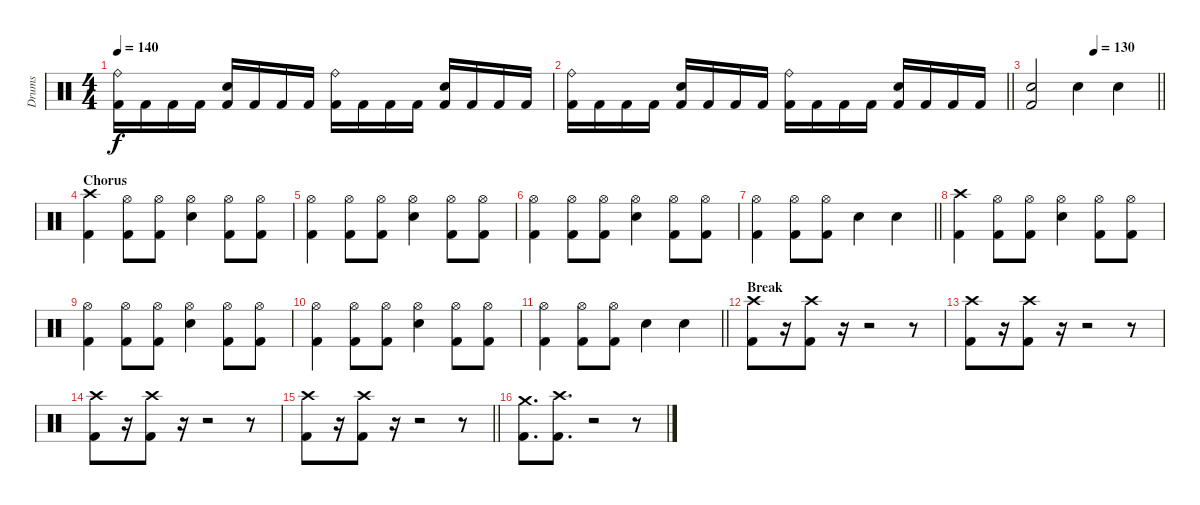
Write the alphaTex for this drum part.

\track ("Drums" "Drums") {instrument percussion}
\staff {score}
\articulation defaults
\ts (4 4)
\tempo 140
\clef neutral
\ks c
("Ride (bell)" "Kick (hit) 2").16{dy f} "Kick (hit) 2".16 "Kick (hit) 2".16 "Kick (hit) 2".16 ("Snare (hit) 2" "Kick (hit) 2").16 "Kick (hit) 2".16 "Kick (hit) 2".16 "Kick (hit) 2".16 ("Ride (bell)" "Kick (hit) 2").16 "Kick (hit) 2".16 "Kick (hit) 2".16 "Kick (hit) 2".16 ("Snare (hit) 2" "Kick (hit) 2").16 "Kick (hit) 2".16 "Kick (hit) 2".16 "Kick (hit) 2".16 |
\barLineRight lightlight
("Ride (bell)" "Kick (hit) 2").16 "Kick (hit) 2".16 "Kick (hit) 2".16 "Kick (hit) 2".16 ("Snare (hit) 2" "Kick (hit) 2").16 "Kick (hit) 2".16 "Kick (hit) 2".16 "Kick (hit) 2".16 ("Ride (bell)" "Kick (hit) 2").16 "Kick (hit) 2".16 "Kick (hit) 2".16 "Kick (hit) 2".16 ("Snare (hit) 2" "Kick (hit) 2").16 "Kick (hit) 2".16 "Kick (hit) 2".16 "Kick (hit) 2".16 |
\tempo (130 0.5)
\barLineRight lightlight
("Snare (hit) 2" "Kick (hit) 2").2 "Snare (hit) 2".4 "Snare (hit) 2".4 |
\section ("" "Chorus")
("Crash high (hit)" "Kick (hit) 2").4 ("Hi-Hat (open)" "Kick (hit) 2").8 ("Hi-Hat (open)" "Kick (hit) 2").8 ("Hi-Hat (open)" "Snare (hit) 2").4 ("Hi-Hat (open)" "Kick (hit) 2").8 ("Hi-Hat (open)" "Kick (hit) 2").8 |
("Hi-Hat (open)" "Kick (hit) 2").4 ("Hi-Hat (open)" "Kick (hit) 2").8 ("Hi-Hat (open)" "Kick (hit) 2").8 ("Hi-Hat (open)" "Snare (hit) 2").4 ("Hi-Hat (open)" "Kick (hit) 2").8 ("Hi-Hat (open)" "Kick (hit) 2").8 |
("Hi-Hat (open)" "Kick (hit) 2").4 ("Hi-Hat (open)" "Kick (hit) 2").8 ("Hi-Hat (open)" "Kick (hit) 2").8 ("Hi-Hat (open)" "Snare (hit) 2").4 ("Hi-Hat (open)" "Kick (hit) 2").8 ("Hi-Hat (open)" "Kick (hit) 2").8 |
\barLineRight lightlight
("Hi-Hat (open)" "Kick (hit) 2").4 ("Hi-Hat (open)" "Kick (hit) 2").8 ("Hi-Hat (open)" "Kick (hit) 2").8 "Snare (hit) 2".4 "Snare (hit) 2".4 |
("Crash high (hit)" "Kick (hit) 2").4 ("Hi-Hat (open)" "Kick (hit) 2").8 ("Hi-Hat (open)" "Kick (hit) 2").8 ("Hi-Hat (open)" "Snare (hit) 2").4 ("Hi-Hat (open)" "Kick (hit) 2").8 ("Hi-Hat (open)" "Kick (hit) 2").8 |
("Hi-Hat (open)" "Kick (hit) 2").4 ("Hi-Hat (open)" "Kick (hit) 2").8 ("Hi-Hat (open)" "Kick (hit) 2").8 ("Hi-Hat (open)" "Snare (hit) 2").4 ("Hi-Hat (open)" "Kick (hit) 2").8 ("Hi-Hat (open)" "Kick (hit) 2").8 |
("Hi-Hat (open)" "Kick (hit) 2").4 ("Hi-Hat (open)" "Kick (hit) 2").8 ("Hi-Hat (open)" "Kick (hit) 2").8 ("Hi-Hat (open)" "Snare (hit) 2").4 ("Hi-Hat (open)" "Kick (hit) 2").8 ("Hi-Hat (open)" "Kick (hit) 2").8 |
\barLineRight lightlight
("Hi-Hat (open)" "Kick (hit) 2").4 ("Hi-Hat (open)" "Kick (hit) 2").8 ("Hi-Hat (open)" "Kick (hit) 2").8 "Snare (hit) 2".4 "Snare (hit) 2".4 |
\section ("" "Break")
("Crash high (hit)" "Kick (hit) 2").8 r.16{volume 0} ("Crash high (hit)" "Kick (hit) 2").8{volume 11} r.16{volume 0} r.2 r.8 |
("Crash high (hit)" "Kick (hit) 2").8{volume 11} r.16{volume 0} ("Crash high (hit)" "Kick (hit) 2").8{volume 11} r.16{volume 0} r.2 r.8 |
("Crash high (hit)" "Kick (hit) 2").8{volume 11} r.16{volume 0} ("Crash high (hit)" "Kick (hit) 2").8{volume 11} r.16{volume 0} r.2 r.8 |
\barLineRight lightlight
("Crash high (hit)" "Kick (hit) 2").8{volume 11} r.16{volume 0} ("Crash high (hit)" "Kick (hit) 2").8{volume 11} r.16{volume 0} r.2 r.8 |
("Crash medium (hit)" "Kick (hit) 2").8{d volume 11} ("Crash high (hit)" "Kick (hit) 2").8{d} r.2 r.8
